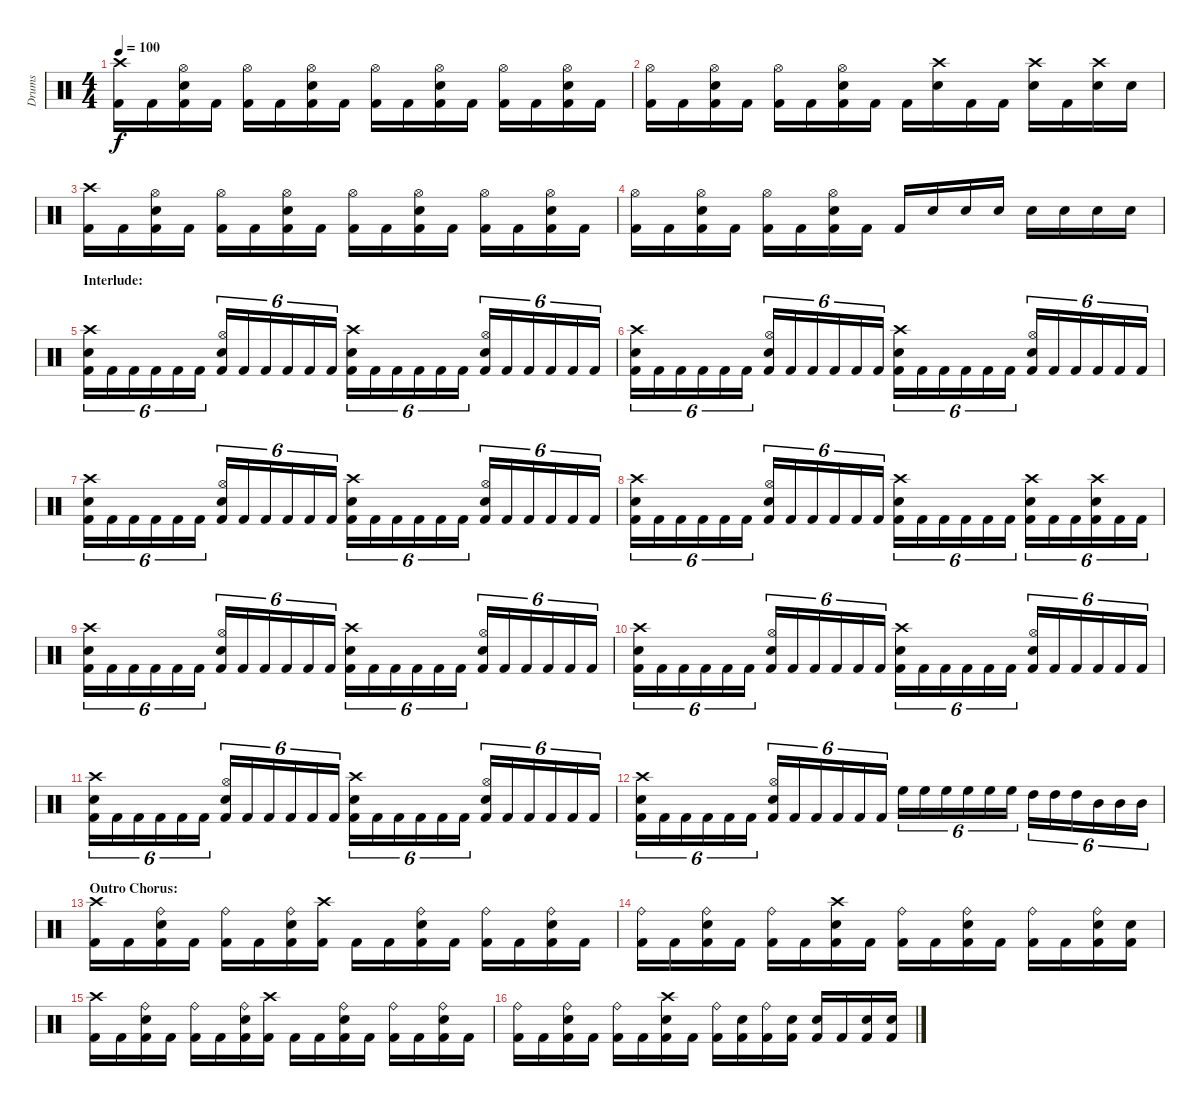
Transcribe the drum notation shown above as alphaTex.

\track ("Drums" "Drums") {instrument percussion}
\staff {score}
\articulation defaults
\ts (4 4)
\tempo 100
\clef neutral
\ks c
("Crash high (hit)" "Kick (hit) 2").16{dy f} "Kick (hit) 2".16 ("Hi-Hat (open)" "Electric Snare (hit)" "Kick (hit) 2").16 "Kick (hit) 2".16 ("Hi-Hat (open)" "Kick (hit) 2").16 "Kick (hit) 2".16 ("Hi-Hat (open)" "Electric Snare (hit)" "Kick (hit) 2").16 "Kick (hit) 2".16 ("Hi-Hat (open)" "Kick (hit) 2").16 "Kick (hit) 2".16 ("Hi-Hat (open)" "Electric Snare (hit)" "Kick (hit) 2").16 "Kick (hit) 2".16 ("Hi-Hat (open)" "Kick (hit) 2").16 "Kick (hit) 2".16 ("Hi-Hat (open)" "Electric Snare (hit)" "Kick (hit) 2").16 "Kick (hit) 2".16 |
("Hi-Hat (open)" "Kick (hit) 2").16 "Kick (hit) 2".16 ("Hi-Hat (open)" "Electric Snare (hit)" "Kick (hit) 2").16 "Kick (hit) 2".16 ("Hi-Hat (open)" "Kick (hit) 2").16 "Kick (hit) 2".16 ("Hi-Hat (open)" "Electric Snare (hit)" "Kick (hit) 2").16 "Kick (hit) 2".16 "Kick (hit) 2".16 ("Crash high (hit)" "Electric Snare (hit)").16 "Kick (hit) 2".16 "Kick (hit) 2".16 ("Crash high (hit)" "Electric Snare (hit)").16 "Kick (hit) 2".16 ("Crash high (hit)" "Electric Snare (hit)").16 "Electric Snare (hit)".16 |
("Crash high (hit)" "Kick (hit) 2").16 "Kick (hit) 2".16 ("Hi-Hat (open)" "Electric Snare (hit)" "Kick (hit) 2").16 "Kick (hit) 2".16 ("Hi-Hat (open)" "Kick (hit) 2").16 "Kick (hit) 2".16 ("Hi-Hat (open)" "Electric Snare (hit)" "Kick (hit) 2").16 "Kick (hit) 2".16 ("Hi-Hat (open)" "Kick (hit) 2").16 "Kick (hit) 2".16 ("Hi-Hat (open)" "Electric Snare (hit)" "Kick (hit) 2").16 "Kick (hit) 2".16 ("Hi-Hat (open)" "Kick (hit) 2").16 "Kick (hit) 2".16 ("Hi-Hat (open)" "Electric Snare (hit)" "Kick (hit) 2").16 "Kick (hit) 2".16 |
("Hi-Hat (open)" "Kick (hit) 2").16 "Kick (hit) 2".16 ("Hi-Hat (open)" "Electric Snare (hit)" "Kick (hit) 2").16 "Kick (hit) 2".16 ("Hi-Hat (open)" "Kick (hit) 2").16 "Kick (hit) 2".16 ("Hi-Hat (open)" "Electric Snare (hit)" "Kick (hit) 2").16 "Kick (hit) 2".16 "Kick (hit) 2".16 "Electric Snare (hit)".16 "Electric Snare (hit)".16 "Electric Snare (hit)".16 "Electric Snare (hit)".16 "Electric Snare (hit)".16 "Electric Snare (hit)".16 "Electric Snare (hit)".16 |
\section ("" "Interlude:")
("Crash high (hit)" "Electric Snare (hit)" "Kick (hit) 2").16{tu (6 4)} "Kick (hit) 2".16{tu (6 4)} "Kick (hit) 2".16{tu (6 4)} "Kick (hit) 2".16{tu (6 4)} "Kick (hit) 2".16{tu (6 4)} "Kick (hit) 2".16{tu (6 4)} ("Hi-Hat (open)" "Electric Snare (hit)" "Kick (hit) 2").16{tu (6 4)} "Kick (hit) 2".16{tu (6 4)} "Kick (hit) 2".16{tu (6 4)} "Kick (hit) 2".16{tu (6 4)} "Kick (hit) 2".16{tu (6 4)} "Kick (hit) 2".16{tu (6 4)} ("Crash high (hit)" "Electric Snare (hit)" "Kick (hit) 2").16{tu (6 4)} "Kick (hit) 2".16{tu (6 4)} "Kick (hit) 2".16{tu (6 4)} "Kick (hit) 2".16{tu (6 4)} "Kick (hit) 2".16{tu (6 4)} "Kick (hit) 2".16{tu (6 4)} ("Hi-Hat (open)" "Electric Snare (hit)" "Kick (hit) 2").16{tu (6 4)} "Kick (hit) 2".16{tu (6 4)} "Kick (hit) 2".16{tu (6 4)} "Kick (hit) 2".16{tu (6 4)} "Kick (hit) 2".16{tu (6 4)} "Kick (hit) 2".16{tu (6 4)} |
("Crash high (hit)" "Electric Snare (hit)" "Kick (hit) 2").16{tu (6 4)} "Kick (hit) 2".16{tu (6 4)} "Kick (hit) 2".16{tu (6 4)} "Kick (hit) 2".16{tu (6 4)} "Kick (hit) 2".16{tu (6 4)} "Kick (hit) 2".16{tu (6 4)} ("Hi-Hat (open)" "Electric Snare (hit)" "Kick (hit) 2").16{tu (6 4)} "Kick (hit) 2".16{tu (6 4)} "Kick (hit) 2".16{tu (6 4)} "Kick (hit) 2".16{tu (6 4)} "Kick (hit) 2".16{tu (6 4)} "Kick (hit) 2".16{tu (6 4)} ("Crash high (hit)" "Electric Snare (hit)" "Kick (hit) 2").16{tu (6 4)} "Kick (hit) 2".16{tu (6 4)} "Kick (hit) 2".16{tu (6 4)} "Kick (hit) 2".16{tu (6 4)} "Kick (hit) 2".16{tu (6 4)} "Kick (hit) 2".16{tu (6 4)} ("Hi-Hat (open)" "Electric Snare (hit)" "Kick (hit) 2").16{tu (6 4)} "Kick (hit) 2".16{tu (6 4)} "Kick (hit) 2".16{tu (6 4)} "Kick (hit) 2".16{tu (6 4)} "Kick (hit) 2".16{tu (6 4)} "Kick (hit) 2".16{tu (6 4)} |
("Crash high (hit)" "Electric Snare (hit)" "Kick (hit) 2").16{tu (6 4)} "Kick (hit) 2".16{tu (6 4)} "Kick (hit) 2".16{tu (6 4)} "Kick (hit) 2".16{tu (6 4)} "Kick (hit) 2".16{tu (6 4)} "Kick (hit) 2".16{tu (6 4)} ("Hi-Hat (open)" "Electric Snare (hit)" "Kick (hit) 2").16{tu (6 4)} "Kick (hit) 2".16{tu (6 4)} "Kick (hit) 2".16{tu (6 4)} "Kick (hit) 2".16{tu (6 4)} "Kick (hit) 2".16{tu (6 4)} "Kick (hit) 2".16{tu (6 4)} ("Crash high (hit)" "Electric Snare (hit)" "Kick (hit) 2").16{tu (6 4)} "Kick (hit) 2".16{tu (6 4)} "Kick (hit) 2".16{tu (6 4)} "Kick (hit) 2".16{tu (6 4)} "Kick (hit) 2".16{tu (6 4)} "Kick (hit) 2".16{tu (6 4)} ("Hi-Hat (open)" "Electric Snare (hit)" "Kick (hit) 2").16{tu (6 4)} "Kick (hit) 2".16{tu (6 4)} "Kick (hit) 2".16{tu (6 4)} "Kick (hit) 2".16{tu (6 4)} "Kick (hit) 2".16{tu (6 4)} "Kick (hit) 2".16{tu (6 4)} |
("Crash high (hit)" "Electric Snare (hit)" "Kick (hit) 2").16{tu (6 4)} "Kick (hit) 2".16{tu (6 4)} "Kick (hit) 2".16{tu (6 4)} "Kick (hit) 2".16{tu (6 4)} "Kick (hit) 2".16{tu (6 4)} "Kick (hit) 2".16{tu (6 4)} ("Hi-Hat (open)" "Electric Snare (hit)" "Kick (hit) 2").16{tu (6 4)} "Kick (hit) 2".16{tu (6 4)} "Kick (hit) 2".16{tu (6 4)} "Kick (hit) 2".16{tu (6 4)} "Kick (hit) 2".16{tu (6 4)} "Kick (hit) 2".16{tu (6 4)} ("Crash high (hit)" "Electric Snare (hit)" "Kick (hit) 2").16{tu (6 4)} "Kick (hit) 2".16{tu (6 4)} "Kick (hit) 2".16{tu (6 4)} "Kick (hit) 2".16{tu (6 4)} "Kick (hit) 2".16{tu (6 4)} "Kick (hit) 2".16{tu (6 4)} ("Crash high (hit)" "Electric Snare (hit)" "Kick (hit) 2").16{tu (6 4)} "Kick (hit) 2".16{tu (6 4)} "Kick (hit) 2".16{tu (6 4)} ("Crash high (hit)" "Electric Snare (hit)" "Kick (hit) 2").16{tu (6 4)} "Kick (hit) 2".16{tu (6 4)} "Kick (hit) 2".16{tu (6 4)} |
("Crash high (hit)" "Electric Snare (hit)" "Kick (hit) 2").16{tu (6 4)} "Kick (hit) 2".16{tu (6 4)} "Kick (hit) 2".16{tu (6 4)} "Kick (hit) 2".16{tu (6 4)} "Kick (hit) 2".16{tu (6 4)} "Kick (hit) 2".16{tu (6 4)} ("Hi-Hat (open)" "Electric Snare (hit)" "Kick (hit) 2").16{tu (6 4)} "Kick (hit) 2".16{tu (6 4)} "Kick (hit) 2".16{tu (6 4)} "Kick (hit) 2".16{tu (6 4)} "Kick (hit) 2".16{tu (6 4)} "Kick (hit) 2".16{tu (6 4)} ("Crash high (hit)" "Electric Snare (hit)" "Kick (hit) 2").16{tu (6 4)} "Kick (hit) 2".16{tu (6 4)} "Kick (hit) 2".16{tu (6 4)} "Kick (hit) 2".16{tu (6 4)} "Kick (hit) 2".16{tu (6 4)} "Kick (hit) 2".16{tu (6 4)} ("Hi-Hat (open)" "Electric Snare (hit)" "Kick (hit) 2").16{tu (6 4)} "Kick (hit) 2".16{tu (6 4)} "Kick (hit) 2".16{tu (6 4)} "Kick (hit) 2".16{tu (6 4)} "Kick (hit) 2".16{tu (6 4)} "Kick (hit) 2".16{tu (6 4)} |
("Crash high (hit)" "Electric Snare (hit)" "Kick (hit) 2").16{tu (6 4)} "Kick (hit) 2".16{tu (6 4)} "Kick (hit) 2".16{tu (6 4)} "Kick (hit) 2".16{tu (6 4)} "Kick (hit) 2".16{tu (6 4)} "Kick (hit) 2".16{tu (6 4)} ("Hi-Hat (open)" "Electric Snare (hit)" "Kick (hit) 2").16{tu (6 4)} "Kick (hit) 2".16{tu (6 4)} "Kick (hit) 2".16{tu (6 4)} "Kick (hit) 2".16{tu (6 4)} "Kick (hit) 2".16{tu (6 4)} "Kick (hit) 2".16{tu (6 4)} ("Crash high (hit)" "Electric Snare (hit)" "Kick (hit) 2").16{tu (6 4)} "Kick (hit) 2".16{tu (6 4)} "Kick (hit) 2".16{tu (6 4)} "Kick (hit) 2".16{tu (6 4)} "Kick (hit) 2".16{tu (6 4)} "Kick (hit) 2".16{tu (6 4)} ("Hi-Hat (open)" "Electric Snare (hit)" "Kick (hit) 2").16{tu (6 4)} "Kick (hit) 2".16{tu (6 4)} "Kick (hit) 2".16{tu (6 4)} "Kick (hit) 2".16{tu (6 4)} "Kick (hit) 2".16{tu (6 4)} "Kick (hit) 2".16{tu (6 4)} |
("Crash high (hit)" "Electric Snare (hit)" "Kick (hit) 2").16{tu (6 4)} "Kick (hit) 2".16{tu (6 4)} "Kick (hit) 2".16{tu (6 4)} "Kick (hit) 2".16{tu (6 4)} "Kick (hit) 2".16{tu (6 4)} "Kick (hit) 2".16{tu (6 4)} ("Hi-Hat (open)" "Electric Snare (hit)" "Kick (hit) 2").16{tu (6 4)} "Kick (hit) 2".16{tu (6 4)} "Kick (hit) 2".16{tu (6 4)} "Kick (hit) 2".16{tu (6 4)} "Kick (hit) 2".16{tu (6 4)} "Kick (hit) 2".16{tu (6 4)} ("Crash high (hit)" "Electric Snare (hit)" "Kick (hit) 2").16{tu (6 4)} "Kick (hit) 2".16{tu (6 4)} "Kick (hit) 2".16{tu (6 4)} "Kick (hit) 2".16{tu (6 4)} "Kick (hit) 2".16{tu (6 4)} "Kick (hit) 2".16{tu (6 4)} ("Hi-Hat (open)" "Electric Snare (hit)" "Kick (hit) 2").16{tu (6 4)} "Kick (hit) 2".16{tu (6 4)} "Kick (hit) 2".16{tu (6 4)} "Kick (hit) 2".16{tu (6 4)} "Kick (hit) 2".16{tu (6 4)} "Kick (hit) 2".16{tu (6 4)} |
("Crash high (hit)" "Electric Snare (hit)" "Kick (hit) 2").16{tu (6 4)} "Kick (hit) 2".16{tu (6 4)} "Kick (hit) 2".16{tu (6 4)} "Kick (hit) 2".16{tu (6 4)} "Kick (hit) 2".16{tu (6 4)} "Kick (hit) 2".16{tu (6 4)} ("Hi-Hat (open)" "Electric Snare (hit)" "Kick (hit) 2").16{tu (6 4)} "Kick (hit) 2".16{tu (6 4)} "Kick (hit) 2".16{tu (6 4)} "Kick (hit) 2".16{tu (6 4)} "Kick (hit) 2".16{tu (6 4)} "Kick (hit) 2".16{tu (6 4)} "High Floor Tom (hit)".16{tu (6 4)} "High Floor Tom (hit)".16{tu (6 4)} "High Floor Tom (hit)".16{tu (6 4)} "High Floor Tom (hit)".16{tu (6 4)} "High Floor Tom (hit)".16{tu (6 4)} "High Floor Tom (hit)".16{tu (6 4)} "High Tom (hit)".16{tu (6 4)} "High Tom (hit)".16{tu (6 4)} "High Tom (hit)".16{tu (6 4)} "Mid Tom (hit)".16{tu (6 4)} "Mid Tom (hit)".16{tu (6 4)} "Mid Tom (hit)".16{tu (6 4)} |
\section ("" "Outro Chorus:")
("Crash high (hit)" "Kick (hit) 2").16 "Kick (hit) 2".16 ("Ride (bell)" "Electric Snare (hit)" "Kick (hit) 2").16 "Kick (hit) 2".16 ("Ride (bell)" "Kick (hit) 2").16 "Kick (hit) 2".16 ("Ride (bell)" "Electric Snare (hit)" "Kick (hit) 2").16 ("Crash high (hit)" "Kick (hit) 2").16 "Kick (hit) 2".16 "Kick (hit) 2".16 ("Ride (bell)" "Electric Snare (hit)" "Kick (hit) 2").16 "Kick (hit) 2".16 ("Ride (bell)" "Kick (hit) 2").16 "Kick (hit) 2".16 ("Ride (bell)" "Electric Snare (hit)" "Kick (hit) 2").16 "Kick (hit) 2".16 |
("Ride (bell)" "Kick (hit) 2").16 "Kick (hit) 2".16 ("Ride (bell)" "Electric Snare (hit)" "Kick (hit) 2").16 "Kick (hit) 2".16 ("Ride (bell)" "Kick (hit) 2").16 "Kick (hit) 2".16 ("Crash high (hit)" "Electric Snare (hit)" "Kick (hit) 2").16 "Kick (hit) 2".16 ("Ride (bell)" "Kick (hit) 2").16 "Kick (hit) 2".16 ("Ride (bell)" "Electric Snare (hit)" "Kick (hit) 2").16 "Kick (hit) 2".16 ("Ride (bell)" "Kick (hit) 2").16 "Kick (hit) 2".16 ("Ride (bell)" "Electric Snare (hit)" "Kick (hit) 2").16 ("Electric Snare (hit)" "Kick (hit) 2").16 |
("Crash high (hit)" "Kick (hit) 2").16 "Kick (hit) 2".16 ("Ride (bell)" "Electric Snare (hit)" "Kick (hit) 2").16 "Kick (hit) 2".16 ("Ride (bell)" "Kick (hit) 2").16 "Kick (hit) 2".16 ("Ride (bell)" "Electric Snare (hit)" "Kick (hit) 2").16 ("Crash high (hit)" "Kick (hit) 2").16 "Kick (hit) 2".16 "Kick (hit) 2".16 ("Ride (bell)" "Electric Snare (hit)" "Kick (hit) 2").16 "Kick (hit) 2".16 ("Ride (bell)" "Kick (hit) 2").16 "Kick (hit) 2".16 ("Ride (bell)" "Electric Snare (hit)" "Kick (hit) 2").16 "Kick (hit) 2".16 |
("Ride (bell)" "Kick (hit) 2").16 "Kick (hit) 2".16 ("Ride (bell)" "Electric Snare (hit)" "Kick (hit) 2").16 "Kick (hit) 2".16 ("Ride (bell)" "Kick (hit) 2").16 "Kick (hit) 2".16 ("Crash high (hit)" "Electric Snare (hit)" "Kick (hit) 2").16 "Kick (hit) 2".16 ("Ride (bell)" "Kick (hit) 2").16 ("Electric Snare (hit)" "Kick (hit) 2").16 ("Ride (bell)" "Kick (hit) 2").16 ("Electric Snare (hit)" "Kick (hit) 2").16 ("Electric Snare (hit)" "Kick (hit) 2").16 "Kick (hit) 2".16 ("Electric Snare (hit)" "Kick (hit) 2").16 ("Electric Snare (hit)" "Kick (hit) 2").16
